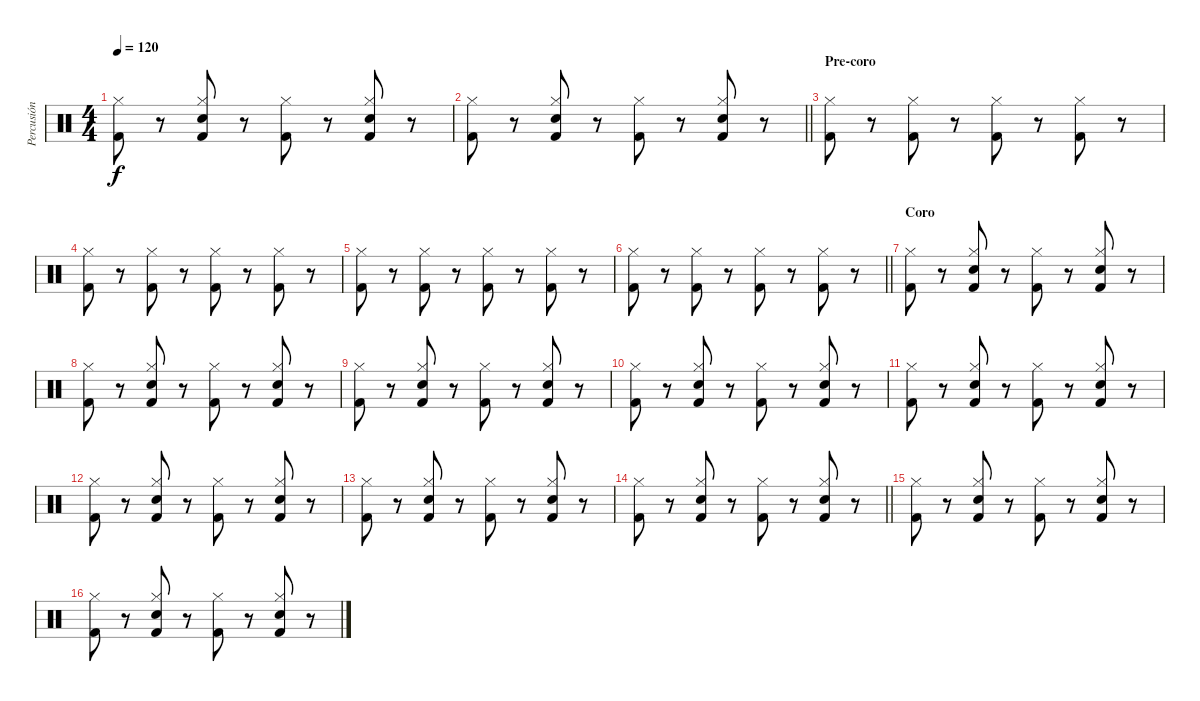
\track ("Percusión" "Percusión") {instrument percussion}
\staff {score}
\articulation defaults
\ts (4 4)
\tempo 120
\clef neutral
\ks c
("Kick (hit) 2" "Hi-Hat (closed)").8{dy f} r.8 ("Kick (hit) 2" "Hi-Hat (closed)" "Snare (hit) 2").8 r.8 ("Kick (hit) 2" "Hi-Hat (closed)").8 r.8 ("Kick (hit) 2" "Hi-Hat (closed)" "Snare (hit) 2").8 r.8 |
\barLineRight lightlight
("Kick (hit) 2" "Hi-Hat (closed)").8 r.8 ("Kick (hit) 2" "Hi-Hat (closed)" "Snare (hit) 2").8 r.8 ("Kick (hit) 2" "Hi-Hat (closed)").8 r.8 ("Kick (hit) 2" "Hi-Hat (closed)" "Snare (hit) 2").8 r.8 |
\section ("" "Pre-coro")
("Kick (hit) 2" "Hi-Hat (closed)").8 r.8 ("Kick (hit) 2" "Hi-Hat (closed)").8 r.8 ("Kick (hit) 2" "Hi-Hat (closed)").8 r.8 ("Kick (hit) 2" "Hi-Hat (closed)").8 r.8 |
("Kick (hit) 2" "Hi-Hat (closed)").8 r.8 ("Kick (hit) 2" "Hi-Hat (closed)").8 r.8 ("Kick (hit) 2" "Hi-Hat (closed)").8 r.8 ("Kick (hit) 2" "Hi-Hat (closed)").8 r.8 |
("Kick (hit) 2" "Hi-Hat (closed)").8 r.8 ("Kick (hit) 2" "Hi-Hat (closed)").8 r.8 ("Kick (hit) 2" "Hi-Hat (closed)").8 r.8 ("Kick (hit) 2" "Hi-Hat (closed)").8 r.8 |
\barLineRight lightlight
("Kick (hit) 2" "Hi-Hat (closed)").8 r.8 ("Kick (hit) 2" "Hi-Hat (closed)").8 r.8 ("Kick (hit) 2" "Hi-Hat (closed)").8 r.8 ("Kick (hit) 2" "Hi-Hat (closed)").8 r.8 |
\section ("" "Coro")
("Kick (hit) 2" "Hi-Hat (closed)").8 r.8 ("Kick (hit) 2" "Hi-Hat (closed)" "Snare (hit) 2").8 r.8 ("Kick (hit) 2" "Hi-Hat (closed)").8 r.8 ("Kick (hit) 2" "Hi-Hat (closed)" "Snare (hit) 2").8 r.8 |
("Kick (hit) 2" "Hi-Hat (closed)").8 r.8 ("Kick (hit) 2" "Hi-Hat (closed)" "Snare (hit) 2").8 r.8 ("Kick (hit) 2" "Hi-Hat (closed)").8 r.8 ("Kick (hit) 2" "Hi-Hat (closed)" "Snare (hit) 2").8 r.8 |
("Kick (hit) 2" "Hi-Hat (closed)").8 r.8 ("Kick (hit) 2" "Hi-Hat (closed)" "Snare (hit) 2").8 r.8 ("Kick (hit) 2" "Hi-Hat (closed)").8 r.8 ("Kick (hit) 2" "Hi-Hat (closed)" "Snare (hit) 2").8 r.8 |
("Kick (hit) 2" "Hi-Hat (closed)").8 r.8 ("Kick (hit) 2" "Hi-Hat (closed)" "Snare (hit) 2").8 r.8 ("Kick (hit) 2" "Hi-Hat (closed)").8 r.8 ("Kick (hit) 2" "Hi-Hat (closed)" "Snare (hit) 2").8 r.8 |
("Kick (hit) 2" "Hi-Hat (closed)").8 r.8 ("Kick (hit) 2" "Hi-Hat (closed)" "Snare (hit) 2").8 r.8 ("Kick (hit) 2" "Hi-Hat (closed)").8 r.8 ("Kick (hit) 2" "Hi-Hat (closed)" "Snare (hit) 2").8 r.8 |
("Kick (hit) 2" "Hi-Hat (closed)").8 r.8 ("Kick (hit) 2" "Hi-Hat (closed)" "Snare (hit) 2").8 r.8 ("Kick (hit) 2" "Hi-Hat (closed)").8 r.8 ("Kick (hit) 2" "Hi-Hat (closed)" "Snare (hit) 2").8 r.8 |
("Kick (hit) 2" "Hi-Hat (closed)").8 r.8 ("Kick (hit) 2" "Hi-Hat (closed)" "Snare (hit) 2").8 r.8 ("Kick (hit) 2" "Hi-Hat (closed)").8 r.8 ("Kick (hit) 2" "Hi-Hat (closed)" "Snare (hit) 2").8 r.8 |
\barLineRight lightlight
("Kick (hit) 2" "Hi-Hat (closed)").8 r.8 ("Kick (hit) 2" "Hi-Hat (closed)" "Snare (hit) 2").8 r.8 ("Kick (hit) 2" "Hi-Hat (closed)").8 r.8 ("Kick (hit) 2" "Hi-Hat (closed)" "Snare (hit) 2").8 r.8 |
("Kick (hit) 2" "Hi-Hat (closed)").8 r.8 ("Kick (hit) 2" "Hi-Hat (closed)" "Snare (hit) 2").8 r.8 ("Kick (hit) 2" "Hi-Hat (closed)").8 r.8 ("Kick (hit) 2" "Hi-Hat (closed)" "Snare (hit) 2").8 r.8 |
("Kick (hit) 2" "Hi-Hat (closed)").8 r.8 ("Kick (hit) 2" "Hi-Hat (closed)" "Snare (hit) 2").8 r.8 ("Kick (hit) 2" "Hi-Hat (closed)").8 r.8 ("Kick (hit) 2" "Hi-Hat (closed)" "Snare (hit) 2").8 r.8
